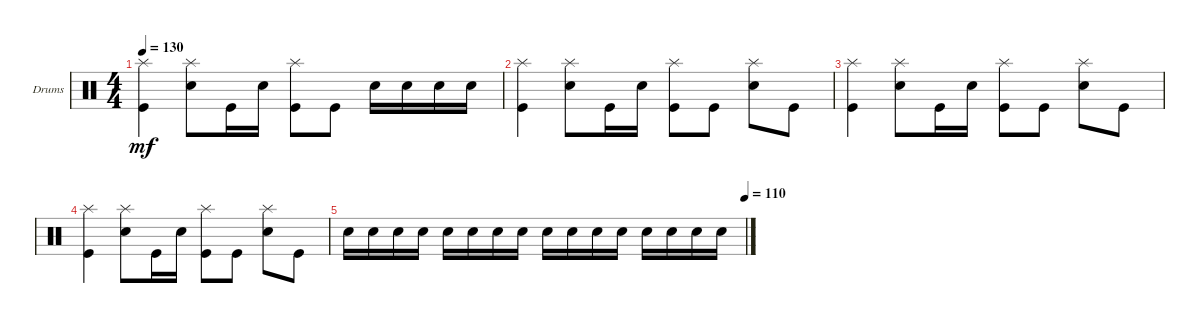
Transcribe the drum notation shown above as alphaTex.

\defaultSystemsLayout 4
\bracketExtendMode groupsimilarinstruments
\firstSystemTrackNameOrientation horizontal
\otherSystemsTrackNameOrientation horizontal
\track ("Drumkit" "Drums") {instrument percussion}
\staff {score}
\articulation defaults
\ts (4 4)
\tempo 130
\clef neutral
\ks c
("Kick (hit)" "Splash (hit)").4{dy mf} ("Snare (hit) 2" "Splash (hit)").8 "Kick (hit)".16 "Snare (hit) 2".16 ("Kick (hit)" "Splash (hit)").8 "Kick (hit)".8 "Snare (hit) 2".16 "Snare (hit) 2".16 "Snare (hit) 2".16 "Snare (hit) 2".16 |
("Kick (hit)" "Splash (hit)").4 ("Snare (hit) 2" "Splash (hit)").8 "Kick (hit)".16 "Snare (hit) 2".16 ("Kick (hit)" "Splash (hit)").8 "Kick (hit)".8 ("Snare (hit) 2" "Splash (hit)").8 "Kick (hit)".8 |
("Kick (hit)" "Splash (hit)").4 ("Snare (hit) 2" "Splash (hit)").8 "Kick (hit)".16 "Snare (hit) 2".16 ("Kick (hit)" "Splash (hit)").8 "Kick (hit)".8 ("Snare (hit) 2" "Splash (hit)").8 "Kick (hit)".8 |
("Kick (hit)" "Splash (hit)").4 ("Snare (hit) 2" "Splash (hit)").8 "Kick (hit)".16 "Snare (hit) 2".16 ("Kick (hit)" "Splash (hit)").8 "Kick (hit)".8 ("Snare (hit) 2" "Splash (hit)").8 "Kick (hit)".8 |
\tempo (110 1)
"Snare (hit) 2".16 "Snare (hit) 2".16 "Snare (hit) 2".16 "Snare (hit) 2".16 "Snare (hit) 2".16 "Snare (hit) 2".16 "Snare (hit) 2".16 "Snare (hit) 2".16 "Snare (hit) 2".16 "Snare (hit) 2".16 "Snare (hit) 2".16 "Snare (hit) 2".16 "Snare (hit) 2".16 "Snare (hit) 2".16 "Snare (hit) 2".16 "Snare (hit) 2".16
